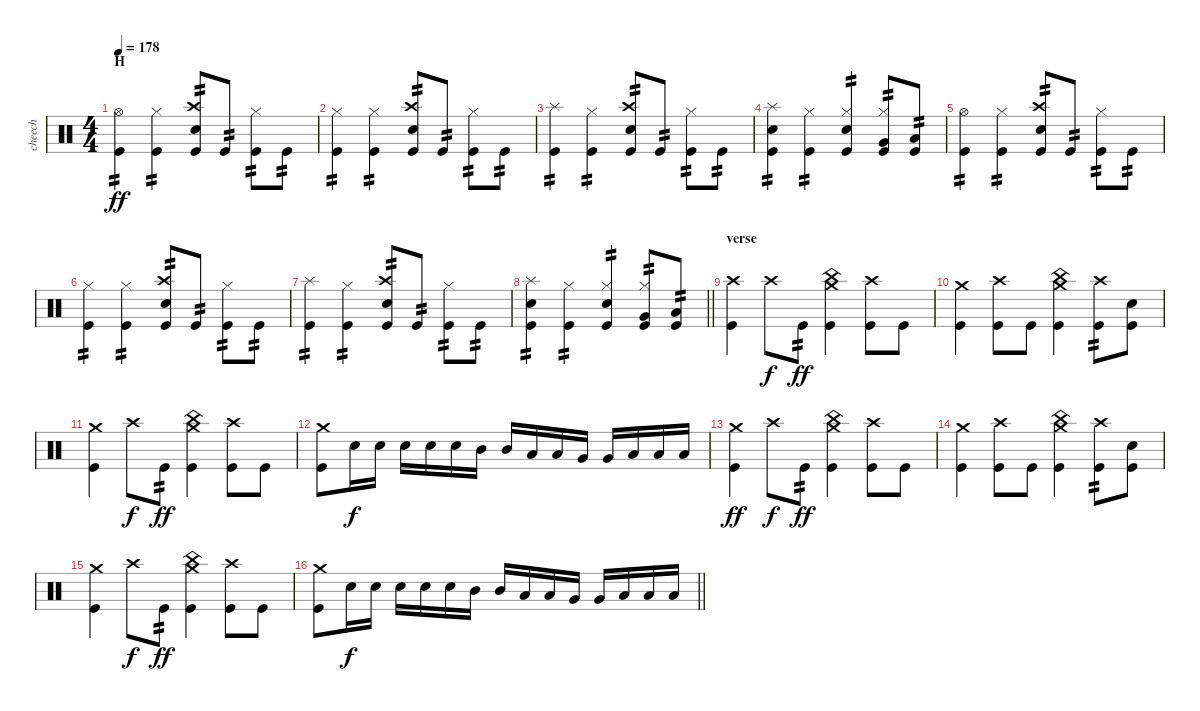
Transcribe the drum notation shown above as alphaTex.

\track ("cheech" "cheech") {solo instrument percussion}
\staff {score}
\articulation defaults
\ts (4 4)
\section ("" "H")
\tempo 178
\clef neutral
\ks c
("Hi-Hat (open)" "Kick (hit)").4{tp 2 dy ff} ("Hi-Hat (closed)" "Kick (hit)").4{tp 2} ("Crash high (hit)" "Electric Snare (hit)" "Kick (hit)").8{tp 2} "Kick (hit)".8{tp 2} ("Hi-Hat (closed)" "Kick (hit)").8{tp 2} "Kick (hit)".8{tp 2} |
("Hi-Hat (closed)" "Kick (hit)").4{tp 2} ("Hi-Hat (closed)" "Kick (hit)").4{tp 2} ("Crash high (hit)" "Electric Snare (hit)" "Kick (hit)").8{tp 2} "Kick (hit)".8{tp 2} ("Hi-Hat (closed)" "Kick (hit)").8{tp 2} "Kick (hit)".8{tp 2} |
("Splash (hit)" "Kick (hit)").4{tp 2} ("Hi-Hat (closed)" "Kick (hit)").4{tp 2} ("Crash high (hit)" "Electric Snare (hit)" "Kick (hit)").8{tp 2} "Kick (hit)".8{tp 2} ("Hi-Hat (closed)" "Kick (hit)").8{tp 2} "Kick (hit)".8{tp 2} |
("Splash (hit)" "Electric Snare (hit)" "Kick (hit)").4{tp 2} ("Hi-Hat (closed)" "Kick (hit)").4{tp 2} ("Hi-Hat (closed)" "Electric Snare (hit)" "Kick (hit)").4{tp 2} ("Hi-Hat (closed)" "Very Low Tom (hit)" "Kick (hit)").8{tp 2} ("Low Floor Tom (hit)" "Kick (hit)").8{tp 2} |
("Hi-Hat (open)" "Kick (hit)").4{tp 2} ("Hi-Hat (closed)" "Kick (hit)").4{tp 2} ("Crash high (hit)" "Electric Snare (hit)" "Kick (hit)").8{tp 2} "Kick (hit)".8{tp 2} ("Hi-Hat (closed)" "Kick (hit)").8{tp 2} "Kick (hit)".8{tp 2} |
("Hi-Hat (closed)" "Kick (hit)").4{tp 2} ("Hi-Hat (closed)" "Kick (hit)").4{tp 2} ("Crash high (hit)" "Electric Snare (hit)" "Kick (hit)").8{tp 2} "Kick (hit)".8{tp 2} ("Hi-Hat (closed)" "Kick (hit)").8{tp 2} "Kick (hit)".8{tp 2} |
("Splash (hit)" "Kick (hit)").4{tp 2} ("Hi-Hat (closed)" "Kick (hit)").4{tp 2} ("Crash high (hit)" "Electric Snare (hit)" "Kick (hit)").8{tp 2} "Kick (hit)".8{tp 2} ("Hi-Hat (closed)" "Kick (hit)").8{tp 2} "Kick (hit)".8{tp 2} |
\barLineRight lightlight
("Splash (hit)" "Electric Snare (hit)" "Kick (hit)").4{tp 2} ("Hi-Hat (closed)" "Kick (hit)").4{tp 2} ("Hi-Hat (closed)" "Electric Snare (hit)" "Kick (hit)").4{tp 2} ("Hi-Hat (closed)" "Very Low Tom (hit)" "Kick (hit)").8{tp 2} ("Low Floor Tom (hit)" "Kick (hit)").8{tp 2} |
\section ("" "verse")
("Crash high (hit)" "Kick (hit)").4 "Crash high (hit)".8{dy f} "Kick (hit)".8{tp 2 dy ff} ("China (hit)" "Crash medium (hit)" "Kick (hit)").4 ("Crash high (hit)" "Kick (hit)").8 "Kick (hit)".8 |
("Crash medium (hit)" "Kick (hit)").4 ("Crash high (hit)" "Kick (hit)").8 "Kick (hit)".8 ("China (hit)" "Crash medium (hit)" "Kick (hit)").4 ("Crash high (hit)" "Kick (hit)").8{tp 2} ("Electric Snare (hit)" "Kick (hit)").8 |
("Crash medium (hit)" "Kick (hit)").4 "Crash high (hit)".8{dy f} "Kick (hit)".8{tp 2 dy ff} ("China (hit)" "Crash medium (hit)" "Kick (hit)").4 ("Crash high (hit)" "Kick (hit)").8 "Kick (hit)".8 |
("Crash medium (hit)" "Kick (hit)").8 "Electric Snare (hit)".16{dy f} "Electric Snare (hit)".16 "Electric Snare (hit)".16 "Electric Snare (hit)".16 "Electric Snare (hit)".16 "Mid Tom (hit)".16 "Mid Tom (hit)".16 "Low Tom (hit)".16 "Low Tom (hit)".16 "Very Low Tom (hit)".16 "Very Low Tom (hit)".16 "Low Floor Tom (hit)".16 "Low Floor Tom (hit)".16 "Low Floor Tom (hit)".16 |
("Crash medium (hit)" "Kick (hit)").4{dy ff} "Crash high (hit)".8{dy f} "Kick (hit)".8{tp 2 dy ff} ("China (hit)" "Crash medium (hit)" "Kick (hit)").4 ("Crash high (hit)" "Kick (hit)").8 "Kick (hit)".8 |
("Crash medium (hit)" "Kick (hit)").4 ("Crash high (hit)" "Kick (hit)").8 "Kick (hit)".8 ("China (hit)" "Crash medium (hit)" "Kick (hit)").4 ("Crash high (hit)" "Kick (hit)").8{tp 2} ("Electric Snare (hit)" "Kick (hit)").8 |
("Crash medium (hit)" "Kick (hit)").4 "Crash high (hit)".8{dy f} "Kick (hit)".8{tp 2 dy ff} ("China (hit)" "Crash medium (hit)" "Kick (hit)").4 ("Crash high (hit)" "Kick (hit)").8 "Kick (hit)".8 |
\barLineRight lightlight
("Crash medium (hit)" "Kick (hit)").8 "Electric Snare (hit)".16{dy f} "Electric Snare (hit)".16 "Electric Snare (hit)".16 "Electric Snare (hit)".16 "Electric Snare (hit)".16 "Mid Tom (hit)".16 "Mid Tom (hit)".16 "Low Tom (hit)".16 "Low Tom (hit)".16 "Very Low Tom (hit)".16 "Very Low Tom (hit)".16 "Low Floor Tom (hit)".16 "Low Floor Tom (hit)".16 "Low Floor Tom (hit)".16
